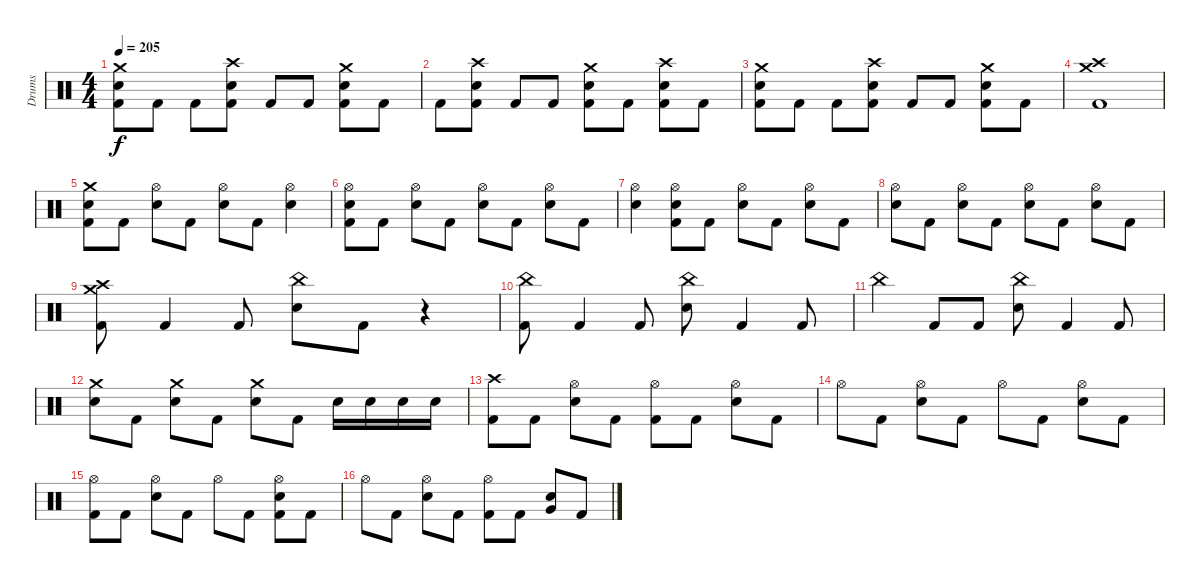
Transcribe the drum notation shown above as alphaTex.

\track ("Drums" "Drums") {instrument percussion}
\staff {score}
\articulation defaults
\ts (4 4)
\tempo 205
\clef neutral
\ks c
("Crash medium (hit)" "Electric Snare (hit)" "Kick (hit) 2").8{dy f} "Kick (hit) 2".8 "Kick (hit) 2".8 ("Crash high (hit)" "Electric Snare (hit)" "Kick (hit) 2").8 "Kick (hit) 2".8 "Kick (hit) 2".8 ("Crash medium (hit)" "Electric Snare (hit)" "Kick (hit) 2").8 "Kick (hit) 2".8 |
"Kick (hit) 2".8 ("Crash high (hit)" "Electric Snare (hit)" "Kick (hit) 2").8 "Kick (hit) 2".8 "Kick (hit) 2".8 ("Crash medium (hit)" "Electric Snare (hit)" "Kick (hit) 2").8 "Kick (hit) 2".8 ("Crash high (hit)" "Electric Snare (hit)" "Kick (hit) 2").8 "Kick (hit) 2".8 |
("Crash medium (hit)" "Electric Snare (hit)" "Kick (hit) 2").8 "Kick (hit) 2".8 "Kick (hit) 2".8 ("Crash high (hit)" "Electric Snare (hit)" "Kick (hit) 2").8 "Kick (hit) 2".8 "Kick (hit) 2".8 ("Crash medium (hit)" "Electric Snare (hit)" "Kick (hit) 2").8 "Kick (hit) 2".8 |
("Crash medium (hit)" "Crash high (hit)" "Kick (hit) 2").1 |
("Crash medium (hit)" "Electric Snare (hit)" "Kick (hit) 2").8 "Kick (hit) 2".8 ("Hi-Hat (open)" "Electric Snare (hit)").8 "Kick (hit) 2".8 ("Hi-Hat (open)" "Electric Snare (hit)").8 "Kick (hit) 2".8 ("Hi-Hat (open)" "Electric Snare (hit)").4 |
("Hi-Hat (open)" "Electric Snare (hit)" "Kick (hit) 2").8 "Kick (hit) 2".8 ("Hi-Hat (open)" "Electric Snare (hit)").8 "Kick (hit) 2".8 ("Hi-Hat (open)" "Electric Snare (hit)").8 "Kick (hit) 2".8 ("Hi-Hat (open)" "Electric Snare (hit)").8 "Kick (hit) 2".8 |
("Hi-Hat (open)" "Electric Snare (hit)").4 ("Hi-Hat (open)" "Electric Snare (hit)" "Kick (hit) 2").8 "Kick (hit) 2".8 ("Hi-Hat (open)" "Electric Snare (hit)").8 "Kick (hit) 2".8 ("Hi-Hat (open)" "Electric Snare (hit)").8 "Kick (hit) 2".8 |
("Hi-Hat (open)" "Electric Snare (hit)").8 "Kick (hit) 2".8 ("Hi-Hat (open)" "Electric Snare (hit)").8 "Kick (hit) 2".8 ("Hi-Hat (open)" "Electric Snare (hit)").8 "Kick (hit) 2".8 ("Hi-Hat (open)" "Electric Snare (hit)").8 "Kick (hit) 2".8 |
("Crash medium (hit)" "Crash high (hit)" "Kick (hit) 2").8 "Kick (hit) 2".4 "Kick (hit) 2".8 ("China (hit)" "Electric Snare (hit)").8 "Kick (hit) 2".8 r.4 |
("China (hit)" "Kick (hit) 2").8 "Kick (hit) 2".4 "Kick (hit) 2".8 ("China (hit)" "Electric Snare (hit)").8 "Kick (hit) 2".4 "Kick (hit) 2".8 |
"China (hit)".4 "Kick (hit) 2".8 "Kick (hit) 2".8 ("China (hit)" "Electric Snare (hit)").8 "Kick (hit) 2".4 "Kick (hit) 2".8 |
("Crash medium (hit)" "Electric Snare (hit)").8 "Kick (hit) 2".8 ("Crash medium (hit)" "Electric Snare (hit)").8 "Kick (hit) 2".8 ("Crash medium (hit)" "Electric Snare (hit)").8 "Kick (hit) 2".8 "Electric Snare (hit)".16 "Electric Snare (hit)".16 "Electric Snare (hit)".16 "Electric Snare (hit)".16 |
("Crash high (hit)" "Kick (hit) 2").8 "Kick (hit) 2".8 ("Hi-Hat (open)" "Electric Snare (hit)").8 "Kick (hit) 2".8 ("Hi-Hat (open)" "Kick (hit) 2").8 "Kick (hit) 2".8 ("Hi-Hat (open)" "Electric Snare (hit)").8 "Kick (hit) 2".8 |
"Hi-Hat (open)".8 "Kick (hit) 2".8 ("Hi-Hat (open)" "Electric Snare (hit)").8 "Kick (hit) 2".8 "Hi-Hat (open)".8 "Kick (hit) 2".8 ("Hi-Hat (open)" "Electric Snare (hit)").8 "Kick (hit) 2".8 |
("Hi-Hat (open)" "Kick (hit) 2").8 "Kick (hit) 2".8 ("Hi-Hat (open)" "Electric Snare (hit)").8 "Kick (hit) 2".8 "Hi-Hat (open)".8 "Kick (hit) 2".8 ("Hi-Hat (open)" "Electric Snare (hit)" "Kick (hit) 2").8 "Kick (hit) 2".8 |
"Hi-Hat (open)".8 "Kick (hit) 2".8 ("Hi-Hat (open)" "Electric Snare (hit)").8 "Kick (hit) 2".8 ("Hi-Hat (open)" "Kick (hit) 2").8 "Kick (hit) 2".8 ("Electric Snare (hit)" "Very Low Tom (hit)").8 "Kick (hit) 2".8
